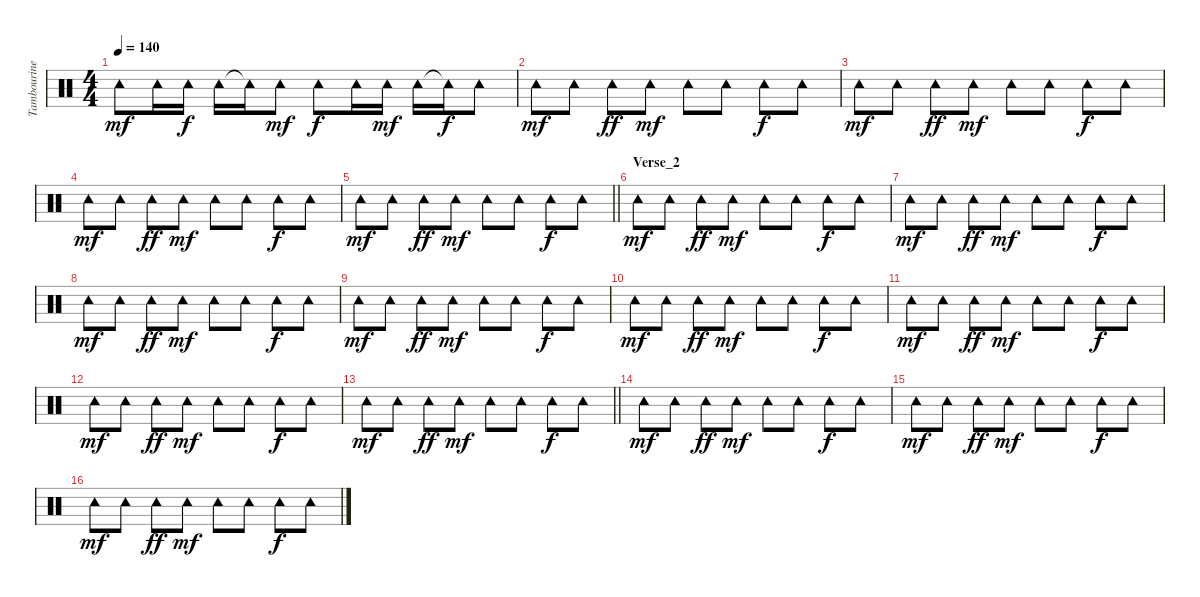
\track ("Tambourine" "Tambourine") {instrument percussion}
\staff {score}
\articulation defaults
\ts (4 4)
\tempo 140
\clef neutral
\ks c "Tambourine (hit)".8{dy mf} "Tambourine (hit)".16 "Tambourine (hit)".16{dy f} "Tambourine (hit)".16 "Tambourine (hit)"{t}.16 "Tambourine (hit)".8{dy mf} "Tambourine (hit)".8{dy f} "Tambourine (hit)".16 "Tambourine (hit)".16{dy mf} "Tambourine (hit)".16 "Tambourine (hit)"{t}.16{dy f} "Tambourine (hit)".8
|
"Tambourine (hit)".8{dy mf} "Tambourine (hit)".8 "Tambourine (hit)".8{dy ff} "Tambourine (hit)".8{dy mf} "Tambourine (hit)".8 "Tambourine (hit)".8 "Tambourine (hit)".8{dy f} "Tambourine (hit)".8 |
"Tambourine (hit)".8{dy mf} "Tambourine (hit)".8 "Tambourine (hit)".8{dy ff} "Tambourine (hit)".8{dy mf} "Tambourine (hit)".8 "Tambourine (hit)".8 "Tambourine (hit)".8{dy f} "Tambourine (hit)".8 |
"Tambourine (hit)".8{dy mf} "Tambourine (hit)".8 "Tambourine (hit)".8{dy ff} "Tambourine (hit)".8{dy mf} "Tambourine (hit)".8 "Tambourine (hit)".8 "Tambourine (hit)".8{dy f} "Tambourine (hit)".8 |
\barLineRight lightlight "Tambourine (hit)".8{dy mf} "Tambourine (hit)".8 "Tambourine (hit)".8{dy ff} "Tambourine (hit)".8{dy mf} "Tambourine (hit)".8 "Tambourine (hit)".8 "Tambourine (hit)".8{dy f} "Tambourine (hit)".8
|
\section ("" "Verse_2")
"Tambourine (hit)".8{dy mf} "Tambourine (hit)".8 "Tambourine (hit)".8{dy ff} "Tambourine (hit)".8{dy mf} "Tambourine (hit)".8 "Tambourine (hit)".8 "Tambourine (hit)".8{dy f} "Tambourine (hit)".8 |
"Tambourine (hit)".8{dy mf} "Tambourine (hit)".8 "Tambourine (hit)".8{dy ff} "Tambourine (hit)".8{dy mf} "Tambourine (hit)".8 "Tambourine (hit)".8 "Tambourine (hit)".8{dy f} "Tambourine (hit)".8 |
"Tambourine (hit)".8{dy mf} "Tambourine (hit)".8 "Tambourine (hit)".8{dy ff} "Tambourine (hit)".8{dy mf} "Tambourine (hit)".8 "Tambourine (hit)".8 "Tambourine (hit)".8{dy f} "Tambourine (hit)".8 |
"Tambourine (hit)".8{dy mf} "Tambourine (hit)".8 "Tambourine (hit)".8{dy ff} "Tambourine (hit)".8{dy mf} "Tambourine (hit)".8 "Tambourine (hit)".8 "Tambourine (hit)".8{dy f} "Tambourine (hit)".8 |
"Tambourine (hit)".8{dy mf} "Tambourine (hit)".8 "Tambourine (hit)".8{dy ff} "Tambourine (hit)".8{dy mf} "Tambourine (hit)".8 "Tambourine (hit)".8 "Tambourine (hit)".8{dy f} "Tambourine (hit)".8 |
"Tambourine (hit)".8{dy mf} "Tambourine (hit)".8 "Tambourine (hit)".8{dy ff} "Tambourine (hit)".8{dy mf} "Tambourine (hit)".8 "Tambourine (hit)".8 "Tambourine (hit)".8{dy f} "Tambourine (hit)".8 |
"Tambourine (hit)".8{dy mf} "Tambourine (hit)".8 "Tambourine (hit)".8{dy ff} "Tambourine (hit)".8{dy mf} "Tambourine (hit)".8 "Tambourine (hit)".8 "Tambourine (hit)".8{dy f} "Tambourine (hit)".8 |
\barLineRight lightlight "Tambourine (hit)".8{dy mf} "Tambourine (hit)".8 "Tambourine (hit)".8{dy ff} "Tambourine (hit)".8{dy mf} "Tambourine (hit)".8 "Tambourine (hit)".8 "Tambourine (hit)".8{dy f} "Tambourine (hit)".8
|
"Tambourine (hit)".8{dy mf} "Tambourine (hit)".8 "Tambourine (hit)".8{dy ff} "Tambourine (hit)".8{dy mf} "Tambourine (hit)".8 "Tambourine (hit)".8 "Tambourine (hit)".8{dy f} "Tambourine (hit)".8 |
"Tambourine (hit)".8{dy mf} "Tambourine (hit)".8 "Tambourine (hit)".8{dy ff} "Tambourine (hit)".8{dy mf} "Tambourine (hit)".8 "Tambourine (hit)".8 "Tambourine (hit)".8{dy f} "Tambourine (hit)".8 |
"Tambourine (hit)".8{dy mf} "Tambourine (hit)".8 "Tambourine (hit)".8{dy ff} "Tambourine (hit)".8{dy mf} "Tambourine (hit)".8 "Tambourine (hit)".8 "Tambourine (hit)".8{dy f} "Tambourine (hit)".8
